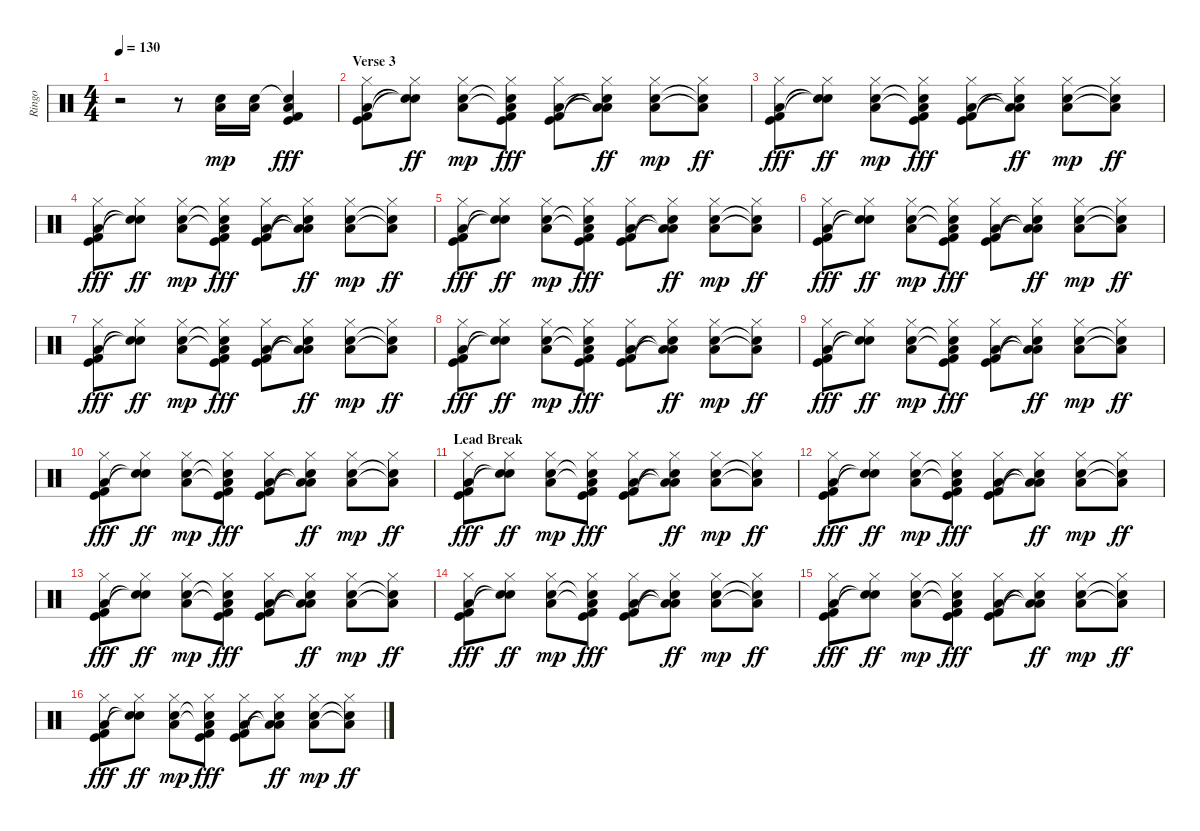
\track ("Ringo" "Ringo") {instrument percussion}
\staff {score}
\articulation defaults
\ts (4 4)
\tempo 130
\clef neutral
\ks c
r.2{dy f volume 16} r.8 ("Low Floor Tom (hit)" "Snare (hit) 2").16{dy mp} ("Low Floor Tom (hit)" "Snare (hit) 2").16 ("Low Floor Tom (hit)" "Snare (hit) 2"{t} "Kick (hit) 2" "Kick (hit)").4{dy fff} |
\section ("" "Verse 3")
("Hi-Hat (closed)" "Low Floor Tom (hit)" "Kick (hit) 2" "Kick (hit)").8 ("Hi-Hat (closed)" "Snare (hit)"{t} "Snare (hit)"{t}).8{dy ff} ("Hi-Hat (closed)" "Low Floor Tom (hit)" "Snare (hit) 2").8{dy mp} ("Hi-Hat (closed)" "Low Floor Tom (hit)"{t} "Snare (hit)"{t} "Kick (hit) 2" "Kick (hit)").8{dy fff} ("Hi-Hat (closed)" "Low Floor Tom (hit)" "Kick (hit) 2" "Kick (hit)").8 ("Hi-Hat (closed)" "Low Floor Tom (hit)"{t} "Low Floor Tom (hit)"{t} "Snare (hit)"{t}).8{dy ff} ("Hi-Hat (closed)" "Low Floor Tom (hit)" "Snare (hit) 2").8{dy mp} ("Hi-Hat (closed)" "Low Floor Tom (hit)"{t} "Snare (hit) 2"{t}).8{dy ff} |
("Hi-Hat (closed)" "Low Floor Tom (hit)" "Kick (hit) 2" "Kick (hit)").8{dy fff} ("Hi-Hat (closed)" "Snare (hit)"{t} "Snare (hit)"{t}).8{dy ff} ("Hi-Hat (closed)" "Low Floor Tom (hit)" "Snare (hit) 2").8{dy mp} ("Hi-Hat (closed)" "Low Floor Tom (hit)"{t} "Snare (hit)"{t} "Kick (hit) 2" "Kick (hit)").8{dy fff} ("Hi-Hat (closed)" "Low Floor Tom (hit)" "Kick (hit) 2" "Kick (hit)").8 ("Hi-Hat (closed)" "Low Floor Tom (hit)"{t} "Low Floor Tom (hit)"{t} "Snare (hit)"{t}).8{dy ff} ("Hi-Hat (closed)" "Low Floor Tom (hit)" "Snare (hit) 2").8{dy mp} ("Hi-Hat (closed)" "Low Floor Tom (hit)"{t} "Snare (hit) 2"{t}).8{dy ff} |
("Hi-Hat (closed)" "Low Floor Tom (hit)" "Kick (hit) 2" "Kick (hit)").8{dy fff} ("Hi-Hat (closed)" "Snare (hit)"{t} "Snare (hit)"{t}).8{dy ff} ("Hi-Hat (closed)" "Low Floor Tom (hit)" "Snare (hit) 2").8{dy mp} ("Hi-Hat (closed)" "Low Floor Tom (hit)"{t} "Snare (hit)"{t} "Kick (hit) 2" "Kick (hit)").8{dy fff} ("Hi-Hat (closed)" "Low Floor Tom (hit)" "Kick (hit) 2" "Kick (hit)").8 ("Hi-Hat (closed)" "Low Floor Tom (hit)"{t} "Low Floor Tom (hit)"{t} "Snare (hit)"{t}).8{dy ff} ("Hi-Hat (closed)" "Low Floor Tom (hit)" "Snare (hit) 2").8{dy mp} ("Hi-Hat (closed)" "Low Floor Tom (hit)"{t} "Snare (hit) 2"{t}).8{dy ff} |
("Hi-Hat (closed)" "Low Floor Tom (hit)" "Kick (hit) 2" "Kick (hit)").8{dy fff} ("Hi-Hat (closed)" "Snare (hit)"{t} "Snare (hit)"{t}).8{dy ff} ("Hi-Hat (closed)" "Low Floor Tom (hit)" "Snare (hit) 2").8{dy mp} ("Hi-Hat (closed)" "Low Floor Tom (hit)"{t} "Snare (hit)"{t} "Kick (hit) 2" "Kick (hit)").8{dy fff} ("Hi-Hat (closed)" "Low Floor Tom (hit)" "Kick (hit) 2" "Kick (hit)").8 ("Hi-Hat (closed)" "Low Floor Tom (hit)"{t} "Low Floor Tom (hit)"{t} "Snare (hit)"{t}).8{dy ff} ("Hi-Hat (closed)" "Low Floor Tom (hit)" "Snare (hit) 2").8{dy mp} ("Hi-Hat (closed)" "Low Floor Tom (hit)"{t} "Snare (hit) 2"{t}).8{dy ff} |
("Hi-Hat (closed)" "Low Floor Tom (hit)" "Kick (hit) 2" "Kick (hit)").8{dy fff} ("Hi-Hat (closed)" "Snare (hit)"{t} "Snare (hit)"{t}).8{dy ff} ("Hi-Hat (closed)" "Low Floor Tom (hit)" "Snare (hit) 2").8{dy mp} ("Hi-Hat (closed)" "Low Floor Tom (hit)"{t} "Snare (hit)"{t} "Kick (hit) 2" "Kick (hit)").8{dy fff} ("Hi-Hat (closed)" "Low Floor Tom (hit)" "Kick (hit) 2" "Kick (hit)").8 ("Hi-Hat (closed)" "Low Floor Tom (hit)"{t} "Low Floor Tom (hit)"{t} "Snare (hit)"{t}).8{dy ff} ("Hi-Hat (closed)" "Low Floor Tom (hit)" "Snare (hit) 2").8{dy mp} ("Hi-Hat (closed)" "Low Floor Tom (hit)"{t} "Snare (hit) 2"{t}).8{dy ff} |
("Hi-Hat (closed)" "Low Floor Tom (hit)" "Kick (hit) 2" "Kick (hit)").8{dy fff} ("Hi-Hat (closed)" "Snare (hit)"{t} "Snare (hit)"{t}).8{dy ff} ("Hi-Hat (closed)" "Low Floor Tom (hit)" "Snare (hit) 2").8{dy mp} ("Hi-Hat (closed)" "Low Floor Tom (hit)"{t} "Snare (hit)"{t} "Kick (hit) 2" "Kick (hit)").8{dy fff} ("Hi-Hat (closed)" "Low Floor Tom (hit)" "Kick (hit) 2" "Kick (hit)").8 ("Hi-Hat (closed)" "Low Floor Tom (hit)"{t} "Low Floor Tom (hit)"{t} "Snare (hit)"{t}).8{dy ff} ("Hi-Hat (closed)" "Low Floor Tom (hit)" "Snare (hit) 2").8{dy mp} ("Hi-Hat (closed)" "Low Floor Tom (hit)"{t} "Snare (hit) 2"{t}).8{dy ff} |
("Hi-Hat (closed)" "Low Floor Tom (hit)" "Kick (hit) 2" "Kick (hit)").8{dy fff} ("Hi-Hat (closed)" "Snare (hit)"{t} "Snare (hit)"{t}).8{dy ff} ("Hi-Hat (closed)" "Low Floor Tom (hit)" "Snare (hit) 2").8{dy mp} ("Hi-Hat (closed)" "Low Floor Tom (hit)"{t} "Snare (hit)"{t} "Kick (hit) 2" "Kick (hit)").8{dy fff} ("Hi-Hat (closed)" "Low Floor Tom (hit)" "Kick (hit) 2" "Kick (hit)").8 ("Hi-Hat (closed)" "Low Floor Tom (hit)"{t} "Low Floor Tom (hit)"{t} "Snare (hit)"{t}).8{dy ff} ("Hi-Hat (closed)" "Low Floor Tom (hit)" "Snare (hit) 2").8{dy mp} ("Hi-Hat (closed)" "Low Floor Tom (hit)"{t} "Snare (hit) 2"{t}).8{dy ff} |
("Hi-Hat (closed)" "Low Floor Tom (hit)" "Kick (hit) 2" "Kick (hit)").8{dy fff} ("Hi-Hat (closed)" "Snare (hit)"{t} "Snare (hit)"{t}).8{dy ff} ("Hi-Hat (closed)" "Low Floor Tom (hit)" "Snare (hit) 2").8{dy mp} ("Hi-Hat (closed)" "Low Floor Tom (hit)"{t} "Snare (hit)"{t} "Kick (hit) 2" "Kick (hit)").8{dy fff} ("Hi-Hat (closed)" "Low Floor Tom (hit)" "Kick (hit) 2" "Kick (hit)").8 ("Hi-Hat (closed)" "Low Floor Tom (hit)"{t} "Low Floor Tom (hit)"{t} "Snare (hit)"{t}).8{dy ff} ("Hi-Hat (closed)" "Low Floor Tom (hit)" "Snare (hit) 2").8{dy mp} ("Hi-Hat (closed)" "Low Floor Tom (hit)"{t} "Snare (hit) 2"{t}).8{dy ff} |
("Hi-Hat (closed)" "Low Floor Tom (hit)" "Kick (hit) 2" "Kick (hit)").8{dy fff} ("Hi-Hat (closed)" "Snare (hit)"{t} "Snare (hit)"{t}).8{dy ff} ("Hi-Hat (closed)" "Low Floor Tom (hit)" "Snare (hit) 2").8{dy mp} ("Hi-Hat (closed)" "Low Floor Tom (hit)"{t} "Snare (hit)"{t} "Kick (hit) 2" "Kick (hit)").8{dy fff} ("Hi-Hat (closed)" "Low Floor Tom (hit)" "Kick (hit) 2" "Kick (hit)").8 ("Hi-Hat (closed)" "Low Floor Tom (hit)"{t} "Low Floor Tom (hit)"{t} "Snare (hit)"{t}).8{dy ff} ("Hi-Hat (closed)" "Low Floor Tom (hit)" "Snare (hit) 2").8{dy mp} ("Hi-Hat (closed)" "Low Floor Tom (hit)"{t} "Snare (hit) 2"{t}).8{dy ff} |
\section ("" "Lead Break")
("Hi-Hat (closed)" "Low Floor Tom (hit)" "Kick (hit) 2" "Kick (hit)").8{dy fff} ("Hi-Hat (closed)" "Snare (hit)"{t} "Snare (hit)"{t}).8{dy ff} ("Hi-Hat (closed)" "Low Floor Tom (hit)" "Snare (hit) 2").8{dy mp} ("Hi-Hat (closed)" "Low Floor Tom (hit)"{t} "Snare (hit)"{t} "Kick (hit) 2" "Kick (hit)").8{dy fff} ("Hi-Hat (closed)" "Low Floor Tom (hit)" "Kick (hit) 2" "Kick (hit)").8 ("Hi-Hat (closed)" "Low Floor Tom (hit)"{t} "Low Floor Tom (hit)"{t} "Snare (hit)"{t}).8{dy ff} ("Hi-Hat (closed)" "Low Floor Tom (hit)" "Snare (hit) 2").8{dy mp} ("Hi-Hat (closed)" "Low Floor Tom (hit)"{t} "Snare (hit) 2"{t}).8{dy ff} |
("Hi-Hat (closed)" "Low Floor Tom (hit)" "Kick (hit) 2" "Kick (hit)").8{dy fff} ("Hi-Hat (closed)" "Snare (hit)"{t} "Snare (hit)"{t}).8{dy ff} ("Hi-Hat (closed)" "Low Floor Tom (hit)" "Snare (hit) 2").8{dy mp} ("Hi-Hat (closed)" "Low Floor Tom (hit)"{t} "Snare (hit)"{t} "Kick (hit) 2" "Kick (hit)").8{dy fff} ("Hi-Hat (closed)" "Low Floor Tom (hit)" "Kick (hit) 2" "Kick (hit)").8 ("Hi-Hat (closed)" "Low Floor Tom (hit)"{t} "Low Floor Tom (hit)"{t} "Snare (hit)"{t}).8{dy ff} ("Hi-Hat (closed)" "Low Floor Tom (hit)" "Snare (hit) 2").8{dy mp} ("Hi-Hat (closed)" "Low Floor Tom (hit)"{t} "Snare (hit) 2"{t}).8{dy ff} |
("Hi-Hat (closed)" "Low Floor Tom (hit)" "Kick (hit) 2" "Kick (hit)").8{dy fff} ("Hi-Hat (closed)" "Snare (hit)"{t} "Snare (hit)"{t}).8{dy ff} ("Hi-Hat (closed)" "Low Floor Tom (hit)" "Snare (hit) 2").8{dy mp} ("Hi-Hat (closed)" "Low Floor Tom (hit)"{t} "Snare (hit)"{t} "Kick (hit) 2" "Kick (hit)").8{dy fff} ("Hi-Hat (closed)" "Low Floor Tom (hit)" "Kick (hit) 2" "Kick (hit)").8 ("Hi-Hat (closed)" "Low Floor Tom (hit)"{t} "Low Floor Tom (hit)"{t} "Snare (hit)"{t}).8{dy ff} ("Hi-Hat (closed)" "Low Floor Tom (hit)" "Snare (hit) 2").8{dy mp} ("Hi-Hat (closed)" "Low Floor Tom (hit)"{t} "Snare (hit) 2"{t}).8{dy ff} |
("Hi-Hat (closed)" "Low Floor Tom (hit)" "Kick (hit) 2" "Kick (hit)").8{dy fff} ("Hi-Hat (closed)" "Snare (hit)"{t} "Snare (hit)"{t}).8{dy ff} ("Hi-Hat (closed)" "Low Floor Tom (hit)" "Snare (hit) 2").8{dy mp} ("Hi-Hat (closed)" "Low Floor Tom (hit)"{t} "Snare (hit)"{t} "Kick (hit) 2" "Kick (hit)").8{dy fff} ("Hi-Hat (closed)" "Low Floor Tom (hit)" "Kick (hit) 2" "Kick (hit)").8 ("Hi-Hat (closed)" "Low Floor Tom (hit)"{t} "Low Floor Tom (hit)"{t} "Snare (hit)"{t}).8{dy ff} ("Hi-Hat (closed)" "Low Floor Tom (hit)" "Snare (hit) 2").8{dy mp} ("Hi-Hat (closed)" "Low Floor Tom (hit)"{t} "Snare (hit) 2"{t}).8{dy ff} |
("Hi-Hat (closed)" "Low Floor Tom (hit)" "Kick (hit) 2" "Kick (hit)").8{dy fff} ("Hi-Hat (closed)" "Snare (hit)"{t} "Snare (hit)"{t}).8{dy ff} ("Hi-Hat (closed)" "Low Floor Tom (hit)" "Snare (hit) 2").8{dy mp} ("Hi-Hat (closed)" "Low Floor Tom (hit)"{t} "Snare (hit)"{t} "Kick (hit) 2" "Kick (hit)").8{dy fff} ("Hi-Hat (closed)" "Low Floor Tom (hit)" "Kick (hit) 2" "Kick (hit)").8 ("Hi-Hat (closed)" "Low Floor Tom (hit)"{t} "Low Floor Tom (hit)"{t} "Snare (hit)"{t}).8{dy ff} ("Hi-Hat (closed)" "Low Floor Tom (hit)" "Snare (hit) 2").8{dy mp} ("Hi-Hat (closed)" "Low Floor Tom (hit)"{t} "Snare (hit) 2"{t}).8{dy ff} |
("Hi-Hat (closed)" "Low Floor Tom (hit)" "Kick (hit) 2" "Kick (hit)").8{dy fff} ("Hi-Hat (closed)" "Snare (hit)"{t} "Snare (hit)"{t}).8{dy ff} ("Hi-Hat (closed)" "Low Floor Tom (hit)" "Snare (hit) 2").8{dy mp} ("Hi-Hat (closed)" "Low Floor Tom (hit)"{t} "Snare (hit)"{t} "Kick (hit) 2" "Kick (hit)").8{dy fff} ("Hi-Hat (closed)" "Low Floor Tom (hit)" "Kick (hit) 2" "Kick (hit)").8 ("Hi-Hat (closed)" "Low Floor Tom (hit)"{t} "Low Floor Tom (hit)"{t} "Snare (hit)"{t}).8{dy ff} ("Hi-Hat (closed)" "Low Floor Tom (hit)" "Snare (hit) 2").8{dy mp} ("Hi-Hat (closed)" "Low Floor Tom (hit)"{t} "Snare (hit) 2"{t}).8{dy ff}
